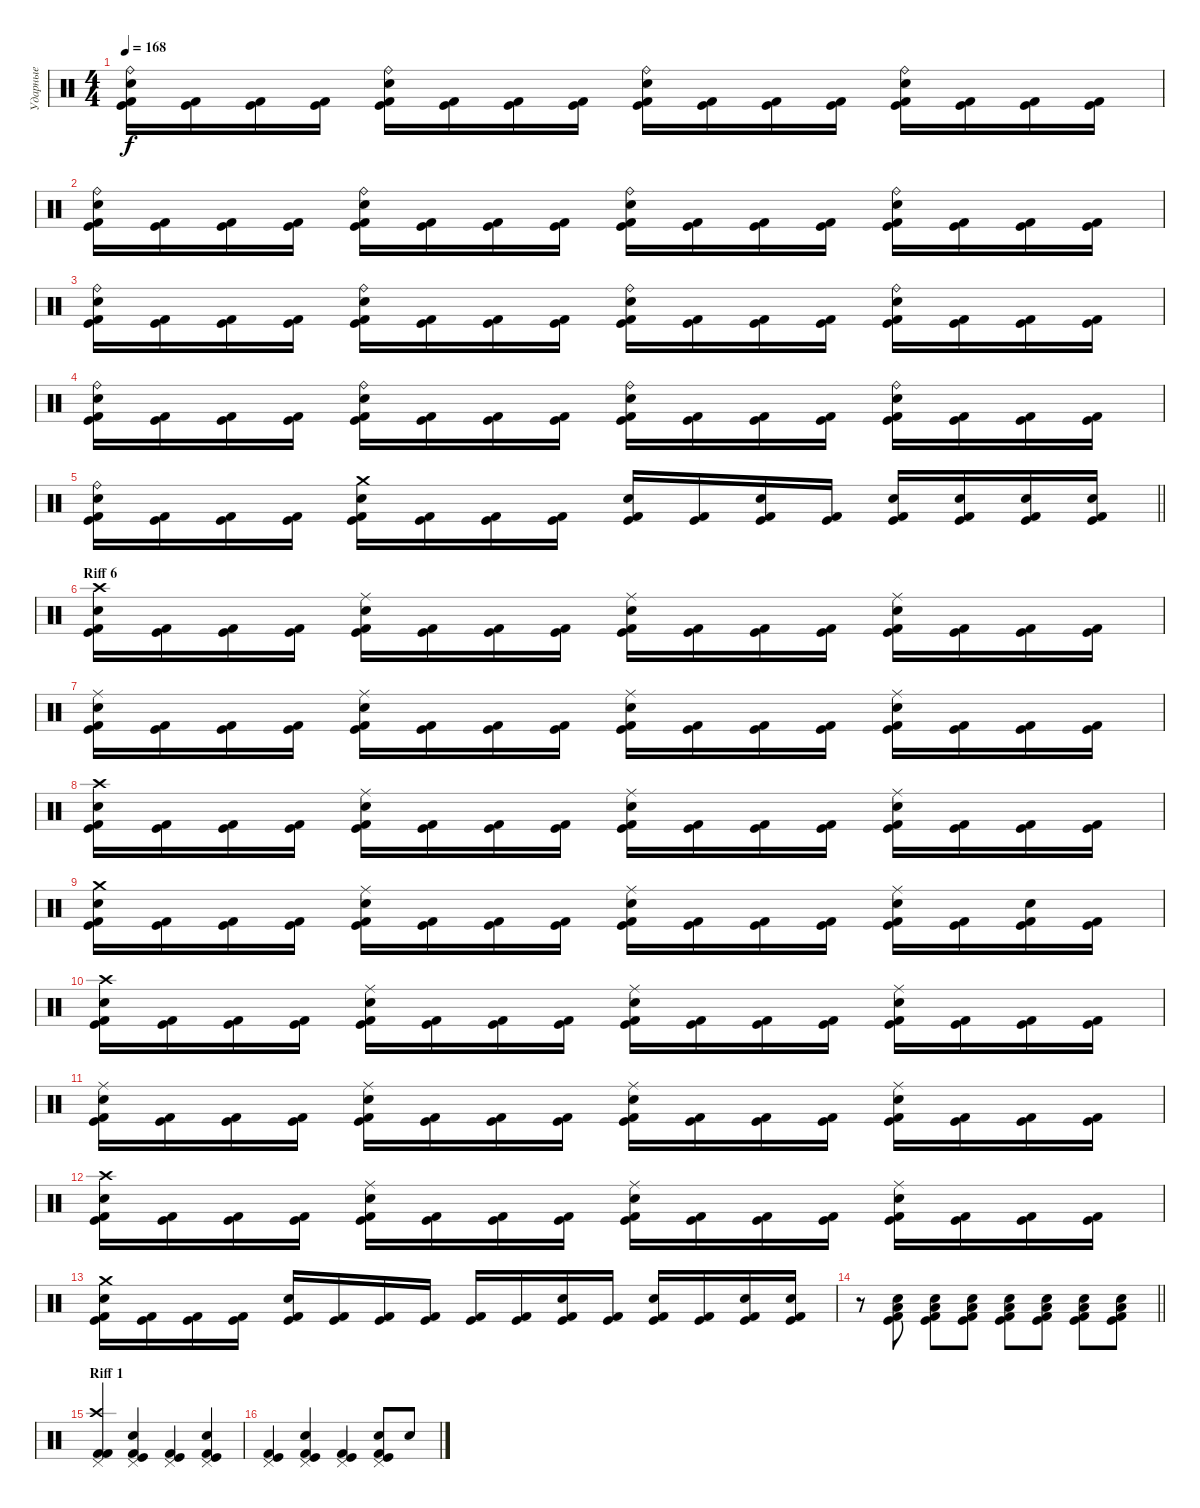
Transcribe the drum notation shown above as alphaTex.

\track ("Ударные" "Ударные") {instrument percussion}
\staff {score}
\articulation defaults
\ts (4 4)
\tempo 168
\clef neutral
\ks c
("Ride (bell)" "Electric Snare (hit)" "Kick (hit)" "Kick (hit) 2").16{dy f} ("Kick (hit)" "Kick (hit) 2").16 ("Kick (hit)" "Kick (hit) 2").16 ("Kick (hit)" "Kick (hit) 2").16 ("Ride (bell)" "Electric Snare (hit)" "Kick (hit)" "Kick (hit) 2").16 ("Kick (hit)" "Kick (hit) 2").16 ("Kick (hit)" "Kick (hit) 2").16 ("Kick (hit)" "Kick (hit) 2").16 ("Ride (bell)" "Electric Snare (hit)" "Kick (hit)" "Kick (hit) 2").16 ("Kick (hit)" "Kick (hit) 2").16 ("Kick (hit)" "Kick (hit) 2").16 ("Kick (hit)" "Kick (hit) 2").16 ("Ride (bell)" "Electric Snare (hit)" "Kick (hit)" "Kick (hit) 2").16 ("Kick (hit)" "Kick (hit) 2").16 ("Kick (hit)" "Kick (hit) 2").16 ("Kick (hit)" "Kick (hit) 2").16 |
("Ride (bell)" "Electric Snare (hit)" "Kick (hit)" "Kick (hit) 2").16 ("Kick (hit)" "Kick (hit) 2").16 ("Kick (hit)" "Kick (hit) 2").16 ("Kick (hit)" "Kick (hit) 2").16 ("Ride (bell)" "Electric Snare (hit)" "Kick (hit)" "Kick (hit) 2").16 ("Kick (hit)" "Kick (hit) 2").16 ("Kick (hit)" "Kick (hit) 2").16 ("Kick (hit)" "Kick (hit) 2").16 ("Ride (bell)" "Electric Snare (hit)" "Kick (hit)" "Kick (hit) 2").16 ("Kick (hit)" "Kick (hit) 2").16 ("Kick (hit)" "Kick (hit) 2").16 ("Kick (hit)" "Kick (hit) 2").16 ("Ride (bell)" "Electric Snare (hit)" "Kick (hit)" "Kick (hit) 2").16 ("Kick (hit)" "Kick (hit) 2").16 ("Kick (hit)" "Kick (hit) 2").16 ("Kick (hit)" "Kick (hit) 2").16 |
("Ride (bell)" "Electric Snare (hit)" "Kick (hit)" "Kick (hit) 2").16 ("Kick (hit)" "Kick (hit) 2").16 ("Kick (hit)" "Kick (hit) 2").16 ("Kick (hit)" "Kick (hit) 2").16 ("Ride (bell)" "Electric Snare (hit)" "Kick (hit)" "Kick (hit) 2").16 ("Kick (hit)" "Kick (hit) 2").16 ("Kick (hit)" "Kick (hit) 2").16 ("Kick (hit)" "Kick (hit) 2").16 ("Ride (bell)" "Electric Snare (hit)" "Kick (hit)" "Kick (hit) 2").16 ("Kick (hit)" "Kick (hit) 2").16 ("Kick (hit)" "Kick (hit) 2").16 ("Kick (hit)" "Kick (hit) 2").16 ("Ride (bell)" "Electric Snare (hit)" "Kick (hit)" "Kick (hit) 2").16 ("Kick (hit)" "Kick (hit) 2").16 ("Kick (hit)" "Kick (hit) 2").16 ("Kick (hit)" "Kick (hit) 2").16 |
("Ride (bell)" "Electric Snare (hit)" "Kick (hit)" "Kick (hit) 2").16 ("Kick (hit)" "Kick (hit) 2").16 ("Kick (hit)" "Kick (hit) 2").16 ("Kick (hit)" "Kick (hit) 2").16 ("Ride (bell)" "Electric Snare (hit)" "Kick (hit)" "Kick (hit) 2").16 ("Kick (hit)" "Kick (hit) 2").16 ("Kick (hit)" "Kick (hit) 2").16 ("Kick (hit)" "Kick (hit) 2").16 ("Ride (bell)" "Electric Snare (hit)" "Kick (hit)" "Kick (hit) 2").16 ("Kick (hit)" "Kick (hit) 2").16 ("Kick (hit)" "Kick (hit) 2").16 ("Kick (hit)" "Kick (hit) 2").16 ("Ride (bell)" "Electric Snare (hit)" "Kick (hit)" "Kick (hit) 2").16 ("Kick (hit)" "Kick (hit) 2").16 ("Kick (hit)" "Kick (hit) 2").16 ("Kick (hit)" "Kick (hit) 2").16 |
\barLineRight lightlight
("Ride (bell)" "Electric Snare (hit)" "Kick (hit)" "Kick (hit) 2").16 ("Kick (hit)" "Kick (hit) 2").16 ("Kick (hit)" "Kick (hit) 2").16 ("Kick (hit)" "Kick (hit) 2").16 ("Crash medium (hit)" "Electric Snare (hit)" "Kick (hit)" "Kick (hit) 2").16 ("Kick (hit)" "Kick (hit) 2").16 ("Kick (hit)" "Kick (hit) 2").16 ("Kick (hit)" "Kick (hit) 2").16 ("Electric Snare (hit)" "Kick (hit)" "Kick (hit) 2").16 ("Kick (hit)" "Kick (hit) 2").16 ("Electric Snare (hit)" "Kick (hit)" "Kick (hit) 2").16 ("Kick (hit)" "Kick (hit) 2").16 ("Electric Snare (hit)" "Kick (hit)" "Kick (hit) 2").16 ("Electric Snare (hit)" "Kick (hit)" "Kick (hit) 2").16 ("Electric Snare (hit)" "Kick (hit)" "Kick (hit) 2").16 ("Electric Snare (hit)" "Kick (hit)" "Kick (hit) 2").16 |
\section ("" "Riff 6")
("Crash high (hit)" "Electric Snare (hit)" "Kick (hit)" "Kick (hit) 2").16 ("Kick (hit)" "Kick (hit) 2").16 ("Kick (hit)" "Kick (hit) 2").16 ("Kick (hit)" "Kick (hit) 2").16 ("Ride (middle)" "Electric Snare (hit)" "Kick (hit)" "Kick (hit) 2").16 ("Kick (hit)" "Kick (hit) 2").16 ("Kick (hit)" "Kick (hit) 2").16 ("Kick (hit)" "Kick (hit) 2").16 ("Ride (middle)" "Electric Snare (hit)" "Kick (hit)" "Kick (hit) 2").16 ("Kick (hit)" "Kick (hit) 2").16 ("Kick (hit)" "Kick (hit) 2").16 ("Kick (hit)" "Kick (hit) 2").16 ("Ride (middle)" "Electric Snare (hit)" "Kick (hit)" "Kick (hit) 2").16 ("Kick (hit)" "Kick (hit) 2").16 ("Kick (hit)" "Kick (hit) 2").16 ("Kick (hit)" "Kick (hit) 2").16 |
("Ride (middle)" "Electric Snare (hit)" "Kick (hit)" "Kick (hit) 2").16 ("Kick (hit)" "Kick (hit) 2").16 ("Kick (hit)" "Kick (hit) 2").16 ("Kick (hit)" "Kick (hit) 2").16 ("Ride (middle)" "Electric Snare (hit)" "Kick (hit)" "Kick (hit) 2").16 ("Kick (hit)" "Kick (hit) 2").16 ("Kick (hit)" "Kick (hit) 2").16 ("Kick (hit)" "Kick (hit) 2").16 ("Ride (middle)" "Electric Snare (hit)" "Kick (hit)" "Kick (hit) 2").16 ("Kick (hit)" "Kick (hit) 2").16 ("Kick (hit)" "Kick (hit) 2").16 ("Kick (hit)" "Kick (hit) 2").16 ("Ride (middle)" "Electric Snare (hit)" "Kick (hit)" "Kick (hit) 2").16 ("Kick (hit)" "Kick (hit) 2").16 ("Kick (hit)" "Kick (hit) 2").16 ("Kick (hit)" "Kick (hit) 2").16 |
("Crash high (hit)" "Electric Snare (hit)" "Kick (hit)" "Kick (hit) 2").16 ("Kick (hit)" "Kick (hit) 2").16 ("Kick (hit)" "Kick (hit) 2").16 ("Kick (hit)" "Kick (hit) 2").16 ("Ride (middle)" "Electric Snare (hit)" "Kick (hit)" "Kick (hit) 2").16 ("Kick (hit)" "Kick (hit) 2").16 ("Kick (hit)" "Kick (hit) 2").16 ("Kick (hit)" "Kick (hit) 2").16 ("Ride (middle)" "Electric Snare (hit)" "Kick (hit)" "Kick (hit) 2").16 ("Kick (hit)" "Kick (hit) 2").16 ("Kick (hit)" "Kick (hit) 2").16 ("Kick (hit)" "Kick (hit) 2").16 ("Ride (middle)" "Electric Snare (hit)" "Kick (hit)" "Kick (hit) 2").16 ("Kick (hit)" "Kick (hit) 2").16 ("Kick (hit)" "Kick (hit) 2").16 ("Kick (hit)" "Kick (hit) 2").16 |
("Crash medium (hit)" "Electric Snare (hit)" "Kick (hit)" "Kick (hit) 2").16 ("Kick (hit)" "Kick (hit) 2").16 ("Kick (hit)" "Kick (hit) 2").16 ("Kick (hit)" "Kick (hit) 2").16 ("Ride (middle)" "Electric Snare (hit)" "Kick (hit)" "Kick (hit) 2").16 ("Kick (hit)" "Kick (hit) 2").16 ("Kick (hit)" "Kick (hit) 2").16 ("Kick (hit)" "Kick (hit) 2").16 ("Ride (middle)" "Electric Snare (hit)" "Kick (hit)" "Kick (hit) 2").16 ("Kick (hit)" "Kick (hit) 2").16 ("Kick (hit)" "Kick (hit) 2").16 ("Kick (hit)" "Kick (hit) 2").16 ("Ride (middle)" "Electric Snare (hit)" "Kick (hit)" "Kick (hit) 2").16 ("Kick (hit)" "Kick (hit) 2").16 ("Electric Snare (hit)" "Kick (hit)" "Kick (hit) 2").16 ("Kick (hit)" "Kick (hit) 2").16 |
("Crash high (hit)" "Electric Snare (hit)" "Kick (hit)" "Kick (hit) 2").16 ("Kick (hit)" "Kick (hit) 2").16 ("Kick (hit)" "Kick (hit) 2").16 ("Kick (hit)" "Kick (hit) 2").16 ("Ride (middle)" "Electric Snare (hit)" "Kick (hit)" "Kick (hit) 2").16 ("Kick (hit)" "Kick (hit) 2").16 ("Kick (hit)" "Kick (hit) 2").16 ("Kick (hit)" "Kick (hit) 2").16 ("Ride (middle)" "Electric Snare (hit)" "Kick (hit)" "Kick (hit) 2").16 ("Kick (hit)" "Kick (hit) 2").16 ("Kick (hit)" "Kick (hit) 2").16 ("Kick (hit)" "Kick (hit) 2").16 ("Ride (middle)" "Electric Snare (hit)" "Kick (hit)" "Kick (hit) 2").16 ("Kick (hit)" "Kick (hit) 2").16 ("Kick (hit)" "Kick (hit) 2").16 ("Kick (hit)" "Kick (hit) 2").16 |
("Ride (middle)" "Electric Snare (hit)" "Kick (hit)" "Kick (hit) 2").16 ("Kick (hit)" "Kick (hit) 2").16 ("Kick (hit)" "Kick (hit) 2").16 ("Kick (hit)" "Kick (hit) 2").16 ("Ride (middle)" "Electric Snare (hit)" "Kick (hit)" "Kick (hit) 2").16 ("Kick (hit)" "Kick (hit) 2").16 ("Kick (hit)" "Kick (hit) 2").16 ("Kick (hit)" "Kick (hit) 2").16 ("Ride (middle)" "Electric Snare (hit)" "Kick (hit)" "Kick (hit) 2").16 ("Kick (hit)" "Kick (hit) 2").16 ("Kick (hit)" "Kick (hit) 2").16 ("Kick (hit)" "Kick (hit) 2").16 ("Ride (middle)" "Electric Snare (hit)" "Kick (hit)" "Kick (hit) 2").16 ("Kick (hit)" "Kick (hit) 2").16 ("Kick (hit)" "Kick (hit) 2").16 ("Kick (hit)" "Kick (hit) 2").16 |
("Crash high (hit)" "Electric Snare (hit)" "Kick (hit)" "Kick (hit) 2").16 ("Kick (hit)" "Kick (hit) 2").16 ("Kick (hit)" "Kick (hit) 2").16 ("Kick (hit)" "Kick (hit) 2").16 ("Ride (middle)" "Electric Snare (hit)" "Kick (hit)" "Kick (hit) 2").16 ("Kick (hit)" "Kick (hit) 2").16 ("Kick (hit)" "Kick (hit) 2").16 ("Kick (hit)" "Kick (hit) 2").16 ("Ride (middle)" "Electric Snare (hit)" "Kick (hit)" "Kick (hit) 2").16 ("Kick (hit)" "Kick (hit) 2").16 ("Kick (hit)" "Kick (hit) 2").16 ("Kick (hit)" "Kick (hit) 2").16 ("Ride (middle)" "Electric Snare (hit)" "Kick (hit)" "Kick (hit) 2").16 ("Kick (hit)" "Kick (hit) 2").16 ("Kick (hit)" "Kick (hit) 2").16 ("Kick (hit)" "Kick (hit) 2").16 |
("Crash medium (hit)" "Electric Snare (hit)" "Kick (hit)" "Kick (hit) 2").16 ("Kick (hit)" "Kick (hit) 2").16 ("Kick (hit)" "Kick (hit) 2").16 ("Kick (hit)" "Kick (hit) 2").16 ("Electric Snare (hit)" "Kick (hit)" "Kick (hit) 2").16 ("Kick (hit)" "Kick (hit) 2").16 ("Kick (hit)" "Kick (hit) 2").16 ("Kick (hit)" "Kick (hit) 2").16 ("Kick (hit)" "Kick (hit) 2").16 ("Kick (hit)" "Kick (hit) 2").16 ("Electric Snare (hit)" "Kick (hit)" "Kick (hit) 2").16 ("Kick (hit)" "Kick (hit) 2").16 ("Electric Snare (hit)" "Kick (hit)" "Kick (hit) 2").16 ("Kick (hit)" "Kick (hit) 2").16 ("Electric Snare (hit)" "Kick (hit)" "Kick (hit) 2").16 ("Electric Snare (hit)" "Kick (hit)" "Kick (hit) 2").16 |
\barLineRight lightlight
r.8 ("Low Tom (hit)" "Electric Snare (hit)" "Kick (hit)" "Kick (hit) 2").8 ("Low Tom (hit)" "Electric Snare (hit)" "Kick (hit)" "Kick (hit) 2").8 ("Low Tom (hit)" "Electric Snare (hit)" "Kick (hit)" "Kick (hit) 2").8 ("Low Tom (hit)" "Electric Snare (hit)" "Kick (hit)" "Kick (hit) 2").8 ("Low Tom (hit)" "Electric Snare (hit)" "Kick (hit)" "Kick (hit) 2").8 ("Low Tom (hit)" "Electric Snare (hit)" "Kick (hit)" "Kick (hit) 2").8 ("Low Tom (hit)" "Electric Snare (hit)" "Kick (hit)" "Kick (hit) 2").8 |
\section ("" "Riff 1")
("Crash high (hit)" "Pedal Hi-Hat (hit)" "Kick (hit) 2" "Kick (hit) 2").4 ("Pedal Hi-Hat (hit)" "Electric Snare (hit)" "Kick (hit)" "Kick (hit) 2").4 ("Pedal Hi-Hat (hit)" "Kick (hit)" "Kick (hit) 2").4 ("Pedal Hi-Hat (hit)" "Electric Snare (hit)" "Kick (hit)" "Kick (hit) 2").4 |
("Pedal Hi-Hat (hit)" "Kick (hit)" "Kick (hit) 2").4 ("Pedal Hi-Hat (hit)" "Electric Snare (hit)" "Kick (hit)" "Kick (hit) 2").4 ("Pedal Hi-Hat (hit)" "Kick (hit)" "Kick (hit) 2").4 ("Pedal Hi-Hat (hit)" "Electric Snare (hit)" "Kick (hit)" "Kick (hit) 2").8 "Electric Snare (hit)".8
